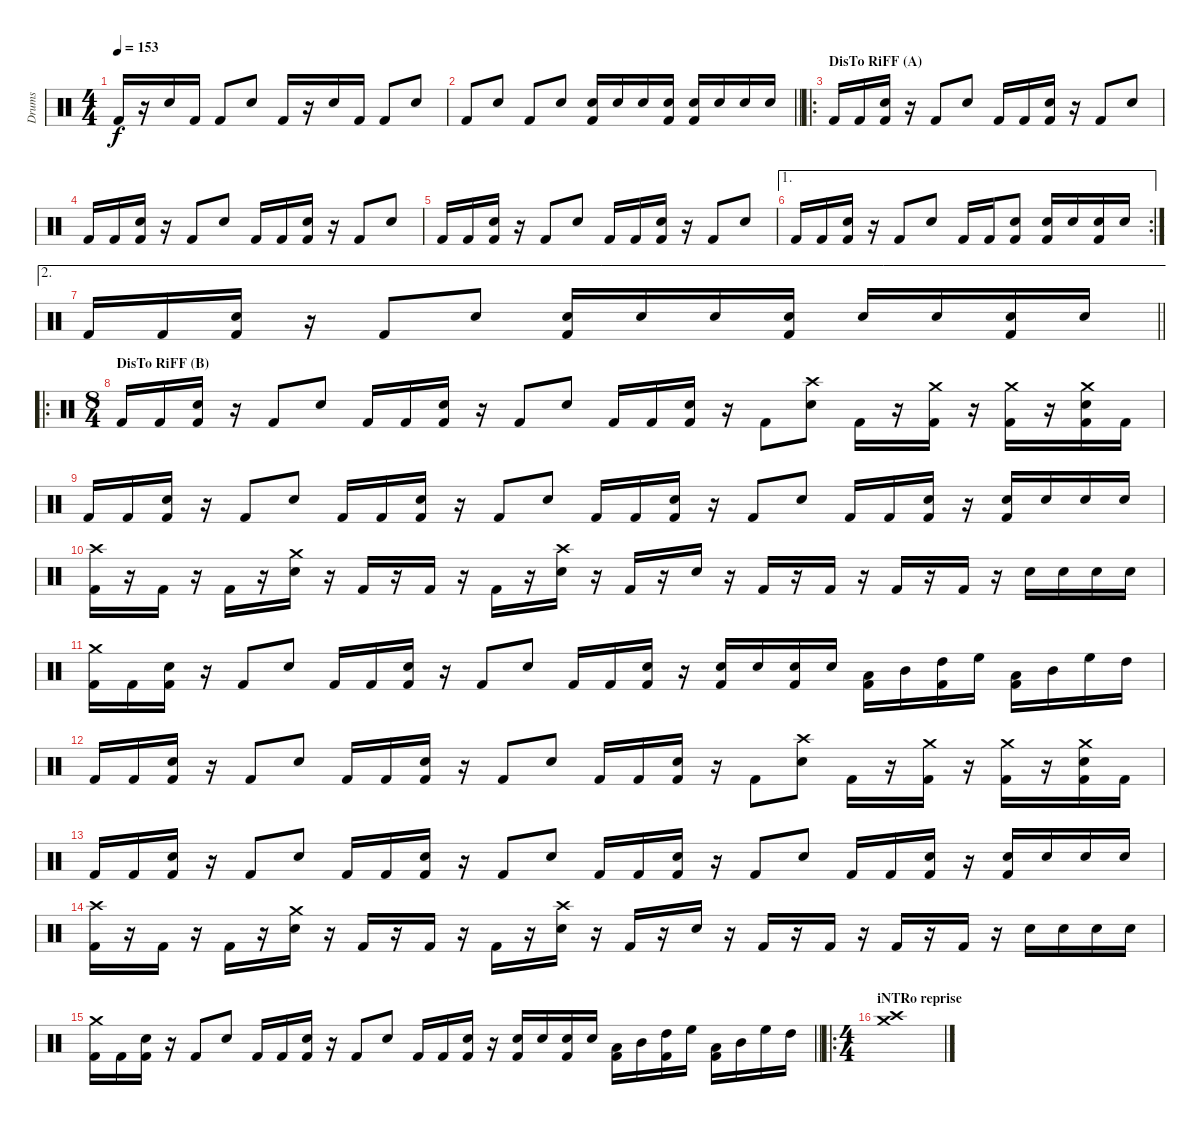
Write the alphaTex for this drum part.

\track ("Drums" "Drums") {instrument percussion}
\staff {score}
\articulation defaults
\ts (4 4)
\tempo 153
\clef neutral
\ks c "Kick (hit) 2".16{dy f}
r.16 "Electric Snare (hit)".16 "Kick (hit) 2".16 "Kick (hit) 2".8 "Electric Snare (hit)".8 "Kick (hit) 2".16 r.16 "Electric Snare (hit)".16 "Kick (hit) 2".16 "Kick (hit) 2".8 "Electric Snare (hit)".8 |
\barLineRight lightlight "Kick (hit) 2".8 "Electric Snare (hit)".8 "Kick (hit) 2".8 "Electric Snare (hit)".8
("Metronome (bell)" "Kick (hit) 2").16 "Metronome (bell)".16 "Metronome (bell)".16 ("Metronome (bell)" "Kick (hit) 2").16 ("Metronome (bell)" "Kick (hit) 2").16 "Metronome (bell)".16 "Metronome (bell)".16 "Metronome (bell)".16 |
\ro
\section ("" "DisTo RiFF (A)")
"Kick (hit) 2".16 "Kick (hit) 2".16 ("Electric Snare (hit)" "Kick (hit) 2").16 r.16 "Kick (hit) 2".8 "Electric Snare (hit)".8 "Kick (hit) 2".16 "Kick (hit) 2".16 ("Electric Snare (hit)" "Kick (hit) 2").16 r.16 "Kick (hit) 2".8 "Electric Snare (hit)".8 |
"Kick (hit) 2".16 "Kick (hit) 2".16 ("Electric Snare (hit)" "Kick (hit) 2").16 r.16 "Kick (hit) 2".8 "Electric Snare (hit)".8 "Kick (hit) 2".16 "Kick (hit) 2".16 ("Electric Snare (hit)" "Kick (hit) 2").16 r.16 "Kick (hit) 2".8 "Electric Snare (hit)".8 |
"Kick (hit) 2".16 "Kick (hit) 2".16 ("Electric Snare (hit)" "Kick (hit) 2").16 r.16 "Kick (hit) 2".8 "Electric Snare (hit)".8 "Kick (hit) 2".16 "Kick (hit) 2".16 ("Electric Snare (hit)" "Kick (hit) 2").16 r.16 "Kick (hit) 2".8 "Electric Snare (hit)".8 |
\ae 1
\rc 2 "Kick (hit) 2".16 "Kick (hit) 2".16
("Electric Snare (hit)" "Kick (hit) 2").16 r.16 "Kick (hit) 2".8 "Electric Snare (hit)".8 "Kick (hit) 2".16 "Kick (hit) 2".16 ("Electric Snare (hit)" "Kick (hit) 2").8 ("Metronome (bell)" "Kick (hit) 2").16 "Metronome (bell)".16 ("Metronome (bell)" "Kick (hit) 2").16 "Metronome (bell)".16 |
\ae 2
\barLineRight lightlight "Kick (hit) 2".16 "Kick (hit) 2".16
("Electric Snare (hit)" "Kick (hit) 2").16 r.16 "Kick (hit) 2".8 "Electric Snare (hit)".8 ("Metronome (bell)" "Kick (hit) 2").16 "Metronome (bell)".16 "Metronome (bell)".16 ("Metronome (bell)" "Kick (hit) 2").16 "Metronome (bell)".16 "Metronome (bell)".16 ("Metronome (bell)" "Kick (hit) 2").16 "Metronome (bell)".16 |
\ro
\ts (8 4)
\section ("" "DisTo RiFF (B)")
"Kick (hit) 2".16 "Kick (hit) 2".16 ("Electric Snare (hit)" "Kick (hit) 2").16 r.16 "Kick (hit) 2".8 "Electric Snare (hit)".8 "Kick (hit) 2".16 "Kick (hit) 2".16 ("Electric Snare (hit)" "Kick (hit) 2").16 r.16 "Kick (hit) 2".8 "Electric Snare (hit)".8 "Kick (hit) 2".16 "Kick (hit) 2".16 ("Electric Snare (hit)" "Kick (hit) 2").16 r.16 "Kick (hit) 2".8 ("Crash high (hit)" "Electric Snare (hit)").8 "Kick (hit) 2".16 r.16 ("Crash medium (hit)" "Kick (hit) 2").16 r.16 ("Crash medium (hit)" "Kick (hit) 2").16 r.16 ("Crash medium (hit)" "Electric Snare (hit)" "Kick (hit) 2").16 "Kick (hit) 2".16 |
"Kick (hit) 2".16 "Kick (hit) 2".16 ("Electric Snare (hit)" "Kick (hit) 2").16 r.16 "Kick (hit) 2".8 "Electric Snare (hit)".8 "Kick (hit) 2".16 "Kick (hit) 2".16 ("Electric Snare (hit)" "Kick (hit) 2").16 r.16 "Kick (hit) 2".8 "Electric Snare (hit)".8 "Kick (hit) 2".16 "Kick (hit) 2".16 ("Electric Snare (hit)" "Kick (hit) 2").16 r.16 "Kick (hit) 2".8 "Electric Snare (hit)".8 "Kick (hit) 2".16 "Kick (hit) 2".16 ("Electric Snare (hit)" "Kick (hit) 2").16 r.16 ("Metronome (bell)" "Kick (hit) 2").16 "Metronome (bell)".16 "Metronome (bell)".16 "Metronome (bell)".16 |
("Crash high (hit)" "Kick (hit) 2").16 r.16 "Kick (hit) 2".16 r.16 "Kick (hit) 2".16 r.16 ("Crash medium (hit)" "Electric Snare (hit)").16 r.16 "Kick (hit) 2".16 r.16 "Kick (hit) 2".16 r.16 "Kick (hit) 2".16 r.16 ("Crash high (hit)" "Electric Snare (hit)").16 r.16 "Kick (hit) 2".16 r.16 "Electric Snare (hit)".16 r.16 "Kick (hit) 2".16 r.16 "Kick (hit) 2".16 r.16 "Kick (hit) 2".16 r.16 "Kick (hit) 2".16 r.16 "Metronome (bell)".16 "Metronome (bell)".16 "Metronome (bell)".16 "Metronome (bell)".16 |
("Crash medium (hit)" "Kick (hit) 2").16 "Kick (hit) 2".16 ("Electric Snare (hit)" "Kick (hit) 2").16 r.16 "Kick (hit) 2".8 "Electric Snare (hit)".8 "Kick (hit) 2".16 "Kick (hit) 2".16 ("Electric Snare (hit)" "Kick (hit) 2").16 r.16 "Kick (hit) 2".8 "Electric Snare (hit)".8 "Kick (hit) 2".16 "Kick (hit) 2".16 ("Electric Snare (hit)" "Kick (hit) 2").16 r.16 ("Metronome (bell)" "Kick (hit) 2").16 "Metronome (bell)".16 ("Metronome (bell)" "Kick (hit) 2").16 "Metronome (bell)".16 ("Low Tom (hit)" "Kick (hit) 2").16 "Mid Tom (hit)".16 ("High Tom (hit)" "Kick (hit) 2").16 "High Floor Tom (hit)".16 ("Low Tom (hit)" "Kick (hit) 2").16 "Mid Tom (hit)".16 "High Floor Tom (hit)".16 "High Tom (hit)".16 |
"Kick (hit) 2".16 "Kick (hit) 2".16 ("Electric Snare (hit)" "Kick (hit) 2").16 r.16 "Kick (hit) 2".8 "Electric Snare (hit)".8 "Kick (hit) 2".16 "Kick (hit) 2".16 ("Electric Snare (hit)" "Kick (hit) 2").16 r.16 "Kick (hit) 2".8 "Electric Snare (hit)".8 "Kick (hit) 2".16 "Kick (hit) 2".16 ("Electric Snare (hit)" "Kick (hit) 2").16 r.16 "Kick (hit) 2".8 ("Crash high (hit)" "Electric Snare (hit)").8 "Kick (hit) 2".16 r.16 ("Crash medium (hit)" "Kick (hit) 2").16 r.16 ("Crash medium (hit)" "Kick (hit) 2").16 r.16 ("Crash medium (hit)" "Electric Snare (hit)" "Kick (hit) 2").16 "Kick (hit) 2".16 |
"Kick (hit) 2".16 "Kick (hit) 2".16 ("Electric Snare (hit)" "Kick (hit) 2").16 r.16 "Kick (hit) 2".8 "Electric Snare (hit)".8 "Kick (hit) 2".16 "Kick (hit) 2".16 ("Electric Snare (hit)" "Kick (hit) 2").16 r.16 "Kick (hit) 2".8 "Electric Snare (hit)".8 "Kick (hit) 2".16 "Kick (hit) 2".16 ("Electric Snare (hit)" "Kick (hit) 2").16 r.16 "Kick (hit) 2".8 "Electric Snare (hit)".8 "Kick (hit) 2".16 "Kick (hit) 2".16 ("Electric Snare (hit)" "Kick (hit) 2").16 r.16 ("Metronome (bell)" "Kick (hit) 2").16 "Metronome (bell)".16 "Metronome (bell)".16 "Metronome (bell)".16 |
("Crash high (hit)" "Kick (hit) 2").16 r.16 "Kick (hit) 2".16 r.16 "Kick (hit) 2".16 r.16 ("Crash medium (hit)" "Electric Snare (hit)").16 r.16 "Kick (hit) 2".16 r.16 "Kick (hit) 2".16 r.16 "Kick (hit) 2".16 r.16 ("Crash high (hit)" "Electric Snare (hit)").16 r.16 "Kick (hit) 2".16 r.16 "Electric Snare (hit)".16 r.16 "Kick (hit) 2".16 r.16 "Kick (hit) 2".16 r.16 "Kick (hit) 2".16 r.16 "Kick (hit) 2".16 r.16 "Metronome (bell)".16 "Metronome (bell)".16 "Metronome (bell)".16 "Metronome (bell)".16 |
\barLineRight lightlight
("Crash medium (hit)" "Kick (hit) 2").16 "Kick (hit) 2".16 ("Electric Snare (hit)" "Kick (hit) 2").16 r.16 "Kick (hit) 2".8 "Electric Snare (hit)".8 "Kick (hit) 2".16 "Kick (hit) 2".16 ("Electric Snare (hit)" "Kick (hit) 2").16 r.16 "Kick (hit) 2".8 "Electric Snare (hit)".8 "Kick (hit) 2".16 "Kick (hit) 2".16 ("Electric Snare (hit)" "Kick (hit) 2").16 r.16 ("Metronome (bell)" "Kick (hit) 2").16 "Metronome (bell)".16 ("Metronome (bell)" "Kick (hit) 2").16 "Metronome (bell)".16 ("Low Tom (hit)" "Kick (hit) 2").16 "Mid Tom (hit)".16 ("High Tom (hit)" "Kick (hit) 2").16 "High Floor Tom (hit)".16 ("Low Tom (hit)" "Kick (hit) 2").16 "Mid Tom (hit)".16 "High Floor Tom (hit)".16 "High Tom (hit)".16 |
\ro
\ts (4 4)
\section ("" "iNTRo reprise")
("Crash medium (hit)" "Crash high (hit)").1
